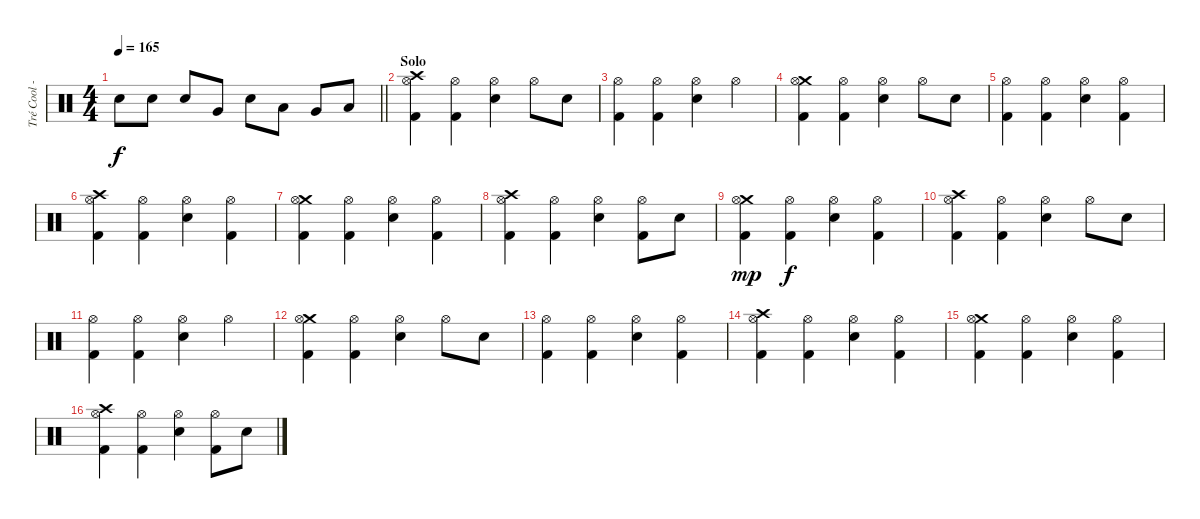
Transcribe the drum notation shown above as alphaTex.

\track ("Tré Cool - Drums" "Tré Cool -") {instrument percussion}
\staff {score}
\articulation defaults
\ts (4 4)
\tempo 165
\clef neutral
\barLineRight lightlight
\ks c "Electric Snare (hit)".8{dy f} "Electric Snare (hit)".8 "Electric Snare (hit)".8 "Very Low Tom (hit)".8 "Electric Snare (hit)".8 "Low Tom (hit)".8 "Very Low Tom (hit)".8 "Low Floor Tom (hit)".8
|
\section ("" "Solo")
("Crash high (hit)" "Hi-Hat (open)" "Kick (hit) 2").4 ("Hi-Hat (open)" "Kick (hit) 2").4 ("Hi-Hat (open)" "Electric Snare (hit)").4 "Hi-Hat (open)".8 "Electric Snare (hit)".8 |
("Hi-Hat (open)" "Kick (hit) 2").4 ("Hi-Hat (open)" "Kick (hit) 2").4 ("Hi-Hat (open)" "Electric Snare (hit)").4 "Hi-Hat (open)".4 |
("Crash medium (hit)" "Hi-Hat (open)" "Kick (hit) 2").4 ("Hi-Hat (open)" "Kick (hit) 2").4 ("Hi-Hat (open)" "Electric Snare (hit)").4 "Hi-Hat (open)".8 "Electric Snare (hit)".8 |
("Hi-Hat (open)" "Kick (hit) 2").4 ("Hi-Hat (open)" "Kick (hit) 2").4 ("Hi-Hat (open)" "Electric Snare (hit)").4 ("Hi-Hat (open)" "Kick (hit) 2").4 |
("Crash high (hit)" "Hi-Hat (open)" "Kick (hit) 2").4 ("Hi-Hat (open)" "Kick (hit) 2").4 ("Hi-Hat (open)" "Electric Snare (hit)").4 ("Hi-Hat (open)" "Kick (hit) 2").4 |
("Crash medium (hit)" "Hi-Hat (open)" "Kick (hit) 2").4 ("Hi-Hat (open)" "Kick (hit) 2").4 ("Hi-Hat (open)" "Electric Snare (hit)").4 ("Hi-Hat (open)" "Kick (hit) 2").4 |
("Crash high (hit)" "Hi-Hat (open)" "Kick (hit) 2").4 ("Hi-Hat (open)" "Kick (hit) 2").4 ("Hi-Hat (open)" "Electric Snare (hit)").4 ("Hi-Hat (open)" "Kick (hit) 2").8 "Electric Snare (hit)".8 |
("Crash medium (hit)" "Hi-Hat (open)" "Kick (hit) 2").4{dy mp} ("Hi-Hat (open)" "Kick (hit) 2").4{dy f} ("Hi-Hat (open)" "Electric Snare (hit)").4 ("Hi-Hat (open)" "Kick (hit) 2").4 |
("Crash high (hit)" "Hi-Hat (open)" "Kick (hit) 2").4 ("Hi-Hat (open)" "Kick (hit) 2").4 ("Hi-Hat (open)" "Electric Snare (hit)").4 "Hi-Hat (open)".8 "Electric Snare (hit)".8 |
("Hi-Hat (open)" "Kick (hit) 2").4 ("Hi-Hat (open)" "Kick (hit) 2").4 ("Hi-Hat (open)" "Electric Snare (hit)").4 "Hi-Hat (open)".4 |
("Crash medium (hit)" "Hi-Hat (open)" "Kick (hit) 2").4 ("Hi-Hat (open)" "Kick (hit) 2").4 ("Hi-Hat (open)" "Electric Snare (hit)").4 "Hi-Hat (open)".8 "Electric Snare (hit)".8 |
("Hi-Hat (open)" "Kick (hit) 2").4 ("Hi-Hat (open)" "Kick (hit) 2").4 ("Hi-Hat (open)" "Electric Snare (hit)").4 ("Hi-Hat (open)" "Kick (hit) 2").4 |
("Crash high (hit)" "Hi-Hat (open)" "Kick (hit) 2").4 ("Hi-Hat (open)" "Kick (hit) 2").4 ("Hi-Hat (open)" "Electric Snare (hit)").4 ("Hi-Hat (open)" "Kick (hit) 2").4 |
("Crash medium (hit)" "Hi-Hat (open)" "Kick (hit) 2").4 ("Hi-Hat (open)" "Kick (hit) 2").4 ("Hi-Hat (open)" "Electric Snare (hit)").4 ("Hi-Hat (open)" "Kick (hit) 2").4 |
("Crash high (hit)" "Hi-Hat (open)" "Kick (hit) 2").4 ("Hi-Hat (open)" "Kick (hit) 2").4 ("Hi-Hat (open)" "Electric Snare (hit)").4 ("Hi-Hat (open)" "Kick (hit) 2").8 "Electric Snare (hit)".8
